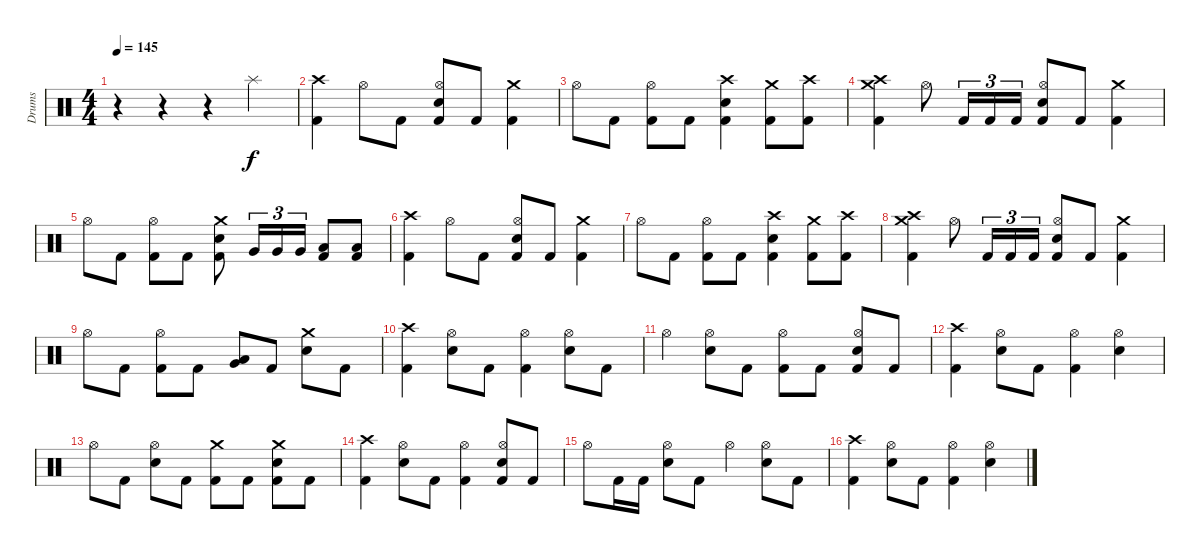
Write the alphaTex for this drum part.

\track ("Drums" "Drums") {instrument percussion}
\staff {score}
\articulation defaults
\ts (4 4)
\tempo 145
\clef neutral
\ks c
r.4{dy f} r.4 r.4 "Splash (hit)".4 |
("Crash high (hit)" "Kick (hit) 2").4 "Hi-Hat (open)".8 "Kick (hit) 2".8 ("Hi-Hat (open)" "Electric Snare (hit)" "Kick (hit) 2").8 "Kick (hit) 2".8 ("Crash medium (hit)" "Kick (hit) 2").4 |
"Hi-Hat (open)".8 "Kick (hit) 2".8 ("Hi-Hat (open)" "Kick (hit) 2").8 "Kick (hit) 2".8 ("Crash high (hit)" "Electric Snare (hit)" "Kick (hit) 2").4 ("Crash medium (hit)" "Kick (hit) 2").8 ("Crash high (hit)" "Kick (hit) 2").8 |
("Crash high (hit)" "Crash medium (hit)" "Kick (hit) 2").4 "Hi-Hat (open)".8 "Kick (hit) 2".16{tu (3 2)} "Kick (hit) 2".16{tu (3 2)} "Kick (hit) 2".16{tu (3 2)} ("Hi-Hat (open)" "Electric Snare (hit)" "Kick (hit) 2").8 "Kick (hit) 2".8 ("Crash medium (hit)" "Kick (hit) 2").4 |
"Hi-Hat (open)".8 "Kick (hit) 2".8 ("Hi-Hat (open)" "Kick (hit) 2").8 "Kick (hit) 2".8 ("Crash medium (hit)" "Electric Snare (hit)" "Kick (hit) 2").8 "Very Low Tom (hit)".16{tu (3 2)} "Very Low Tom (hit)".16{tu (3 2)} "Very Low Tom (hit)".16{tu (3 2)} ("Low Floor Tom (hit)" "Kick (hit) 2").8 ("Low Floor Tom (hit)" "Kick (hit) 2").8 |
("Crash high (hit)" "Kick (hit) 2").4 "Hi-Hat (open)".8 "Kick (hit) 2".8 ("Hi-Hat (open)" "Electric Snare (hit)" "Kick (hit) 2").8 "Kick (hit) 2".8 ("Crash medium (hit)" "Kick (hit) 2").4 |
"Hi-Hat (open)".8 "Kick (hit) 2".8 ("Hi-Hat (open)" "Kick (hit) 2").8 "Kick (hit) 2".8 ("Crash high (hit)" "Electric Snare (hit)" "Kick (hit) 2").4 ("Crash medium (hit)" "Kick (hit) 2").8 ("Crash high (hit)" "Kick (hit) 2").8 |
("Crash high (hit)" "Crash medium (hit)" "Kick (hit) 2").4 "Hi-Hat (open)".8 "Kick (hit) 2".16{tu (3 2)} "Kick (hit) 2".16{tu (3 2)} "Kick (hit) 2".16{tu (3 2)} ("Hi-Hat (open)" "Electric Snare (hit)" "Kick (hit) 2").8 "Kick (hit) 2".8 ("Crash medium (hit)" "Kick (hit) 2").4 |
"Hi-Hat (open)".8 "Kick (hit) 2".8 ("Hi-Hat (open)" "Kick (hit) 2").8 "Kick (hit) 2".8 ("Low Floor Tom (hit)" "Very Low Tom (hit)").8 "Kick (hit) 2".8 ("Crash medium (hit)" "Electric Snare (hit)").8 "Kick (hit) 2".8 |
("Crash high (hit)" "Kick (hit) 2").4 ("Hi-Hat (open)" "Electric Snare (hit)").8 "Kick (hit) 2".8 ("Hi-Hat (open)" "Kick (hit) 2").4 ("Hi-Hat (open)" "Electric Snare (hit)").8 "Kick (hit) 2".8 |
"Hi-Hat (open)".4 ("Hi-Hat (open)" "Electric Snare (hit)").8 "Kick (hit) 2".8 ("Hi-Hat (open)" "Kick (hit) 2").8 "Kick (hit) 2".8 ("Hi-Hat (open)" "Electric Snare (hit)" "Kick (hit) 2").8 "Kick (hit) 2".8 |
("Crash high (hit)" "Kick (hit) 2").4 ("Hi-Hat (open)" "Electric Snare (hit)").8 "Kick (hit) 2".8 ("Hi-Hat (open)" "Kick (hit) 2").4 ("Hi-Hat (open)" "Electric Snare (hit)").4 |
"Hi-Hat (open)".8 "Kick (hit) 2".8 ("Hi-Hat (open)" "Electric Snare (hit)").8 "Kick (hit) 2".8 ("Crash medium (hit)" "Kick (hit) 2").8 "Kick (hit) 2".8 ("Crash medium (hit)" "Electric Snare (hit)" "Kick (hit) 2").8 "Kick (hit) 2".8 |
("Crash high (hit)" "Kick (hit) 2").4 ("Hi-Hat (open)" "Electric Snare (hit)").8 "Kick (hit) 2".8 ("Hi-Hat (open)" "Kick (hit) 2").4 ("Hi-Hat (open)" "Electric Snare (hit)" "Kick (hit) 2").8 "Kick (hit) 2".8 |
"Hi-Hat (open)".8 "Kick (hit) 2".16 "Kick (hit) 2".16 ("Hi-Hat (open)" "Electric Snare (hit)").8 "Kick (hit) 2".8 "Hi-Hat (open)".4 ("Hi-Hat (open)" "Electric Snare (hit)").8 "Kick (hit) 2".8 |
("Crash high (hit)" "Kick (hit) 2").4 ("Hi-Hat (open)" "Electric Snare (hit)").8 "Kick (hit) 2".8 ("Hi-Hat (open)" "Kick (hit) 2").4 ("Hi-Hat (open)" "Electric Snare (hit)").4
